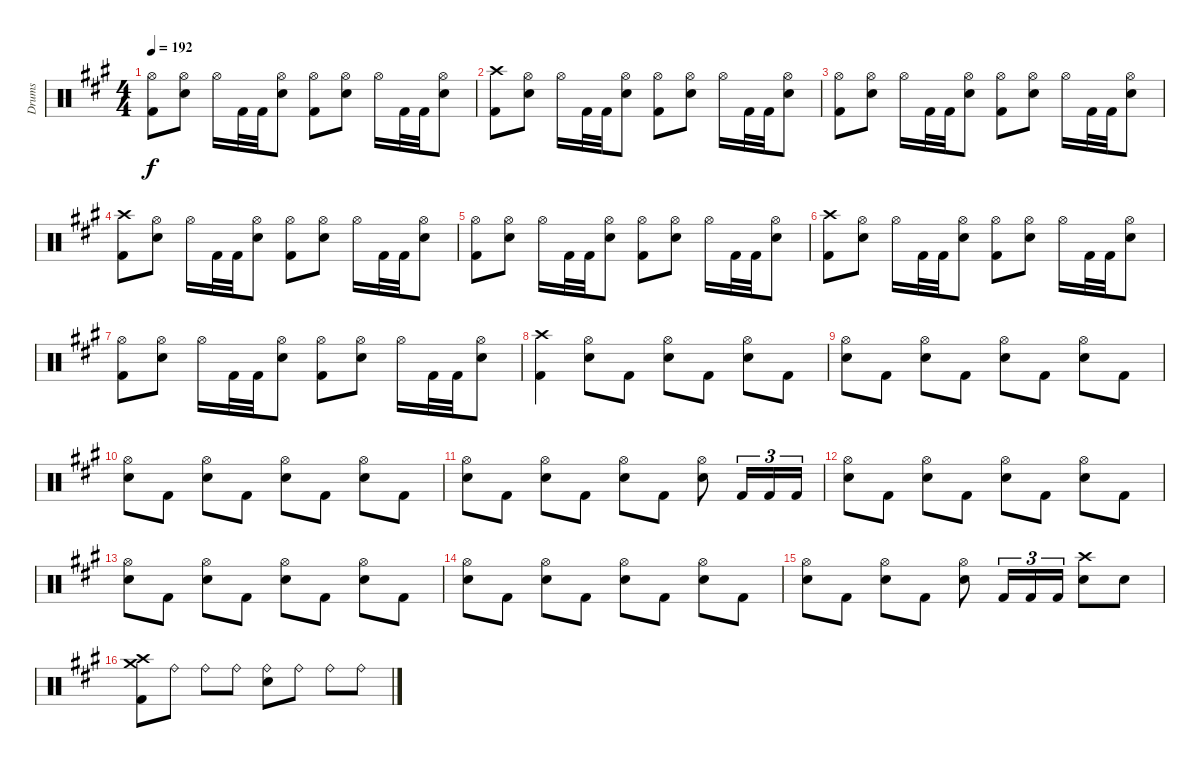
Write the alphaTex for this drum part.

\track ("Drums" "Drums") {instrument percussion}
\staff {score}
\articulation defaults
\ts (4 4)
\tempo 192
\clef neutral
\ks f#minor
("Hi-Hat (open)" "Kick (hit) 2").8{dy f} ("Hi-Hat (open)" "Snare (hit) 2").8 "Hi-Hat (open)".16 "Kick (hit) 2".32 "Kick (hit) 2".32 ("Hi-Hat (open)" "Snare (hit) 2").8 ("Hi-Hat (open)" "Kick (hit) 2").8 ("Hi-Hat (open)" "Snare (hit) 2").8 "Hi-Hat (open)".16 "Kick (hit) 2".32 "Kick (hit) 2".32 ("Hi-Hat (open)" "Snare (hit) 2").8 |
("Crash high (hit)" "Kick (hit) 2").8 ("Hi-Hat (open)" "Snare (hit) 2").8 "Hi-Hat (open)".16 "Kick (hit) 2".32 "Kick (hit) 2".32 ("Hi-Hat (open)" "Snare (hit) 2").8 ("Hi-Hat (open)" "Kick (hit) 2").8 ("Hi-Hat (open)" "Snare (hit) 2").8 "Hi-Hat (open)".16 "Kick (hit) 2".32 "Kick (hit) 2".32 ("Hi-Hat (open)" "Snare (hit) 2").8 |
("Hi-Hat (open)" "Kick (hit) 2").8 ("Hi-Hat (open)" "Snare (hit) 2").8 "Hi-Hat (open)".16 "Kick (hit) 2".32 "Kick (hit) 2".32 ("Hi-Hat (open)" "Snare (hit) 2").8 ("Hi-Hat (open)" "Kick (hit) 2").8 ("Hi-Hat (open)" "Snare (hit) 2").8 "Hi-Hat (open)".16 "Kick (hit) 2".32 "Kick (hit) 2".32 ("Hi-Hat (open)" "Snare (hit) 2").8 |
("Crash high (hit)" "Kick (hit) 2").8 ("Hi-Hat (open)" "Snare (hit) 2").8 "Hi-Hat (open)".16 "Kick (hit) 2".32 "Kick (hit) 2".32 ("Hi-Hat (open)" "Snare (hit) 2").8 ("Hi-Hat (open)" "Kick (hit) 2").8 ("Hi-Hat (open)" "Snare (hit) 2").8 "Hi-Hat (open)".16 "Kick (hit) 2".32 "Kick (hit) 2".32 ("Hi-Hat (open)" "Snare (hit) 2").8 |
("Hi-Hat (open)" "Kick (hit) 2").8 ("Hi-Hat (open)" "Snare (hit) 2").8 "Hi-Hat (open)".16 "Kick (hit) 2".32 "Kick (hit) 2".32 ("Hi-Hat (open)" "Snare (hit) 2").8 ("Hi-Hat (open)" "Kick (hit) 2").8 ("Hi-Hat (open)" "Snare (hit) 2").8 "Hi-Hat (open)".16 "Kick (hit) 2".32 "Kick (hit) 2".32 ("Hi-Hat (open)" "Snare (hit) 2").8 |
("Crash high (hit)" "Kick (hit) 2").8 ("Hi-Hat (open)" "Snare (hit) 2").8 "Hi-Hat (open)".16 "Kick (hit) 2".32 "Kick (hit) 2".32 ("Hi-Hat (open)" "Snare (hit) 2").8 ("Hi-Hat (open)" "Kick (hit) 2").8 ("Hi-Hat (open)" "Snare (hit) 2").8 "Hi-Hat (open)".16 "Kick (hit) 2".32 "Kick (hit) 2".32 ("Hi-Hat (open)" "Snare (hit) 2").8 |
("Hi-Hat (open)" "Kick (hit) 2").8 ("Hi-Hat (open)" "Snare (hit) 2").8 "Hi-Hat (open)".16 "Kick (hit) 2".32 "Kick (hit) 2".32 ("Hi-Hat (open)" "Snare (hit) 2").8 ("Hi-Hat (open)" "Kick (hit) 2").8 ("Hi-Hat (open)" "Snare (hit) 2").8 "Hi-Hat (open)".16 "Kick (hit) 2".32 "Kick (hit) 2".32 ("Hi-Hat (open)" "Snare (hit) 2").8 |
("Crash high (hit)" "Kick (hit) 2").4 ("Hi-Hat (open)" "Snare (hit) 2").8 "Kick (hit) 2".8 ("Hi-Hat (open)" "Snare (hit) 2").8 "Kick (hit) 2".8 ("Hi-Hat (open)" "Snare (hit) 2").8 "Kick (hit) 2".8 |
("Hi-Hat (open)" "Snare (hit) 2").8 "Kick (hit) 2".8 ("Hi-Hat (open)" "Snare (hit) 2").8 "Kick (hit) 2".8 ("Hi-Hat (open)" "Snare (hit) 2").8 "Kick (hit) 2".8 ("Hi-Hat (open)" "Snare (hit) 2").8 "Kick (hit) 2".8 |
("Hi-Hat (open)" "Snare (hit) 2").8 "Kick (hit) 2".8 ("Hi-Hat (open)" "Snare (hit) 2").8 "Kick (hit) 2".8 ("Hi-Hat (open)" "Snare (hit) 2").8 "Kick (hit) 2".8 ("Hi-Hat (open)" "Snare (hit) 2").8 "Kick (hit) 2".8 |
("Hi-Hat (open)" "Snare (hit) 2").8 "Kick (hit) 2".8 ("Hi-Hat (open)" "Snare (hit) 2").8 "Kick (hit) 2".8 ("Hi-Hat (open)" "Snare (hit) 2").8 "Kick (hit) 2".8 ("Hi-Hat (open)" "Snare (hit) 2").8 "Kick (hit) 2".16{tu (3 2)} "Kick (hit) 2".16{tu (3 2)} "Kick (hit) 2".16{tu (3 2)} |
("Hi-Hat (open)" "Snare (hit) 2").8 "Kick (hit) 2".8 ("Hi-Hat (open)" "Snare (hit) 2").8 "Kick (hit) 2".8 ("Hi-Hat (open)" "Snare (hit) 2").8 "Kick (hit) 2".8 ("Hi-Hat (open)" "Snare (hit) 2").8 "Kick (hit) 2".8 |
("Hi-Hat (open)" "Snare (hit) 2").8 "Kick (hit) 2".8 ("Hi-Hat (open)" "Snare (hit) 2").8 "Kick (hit) 2".8 ("Hi-Hat (open)" "Snare (hit) 2").8 "Kick (hit) 2".8 ("Hi-Hat (open)" "Snare (hit) 2").8 "Kick (hit) 2".8 |
("Hi-Hat (open)" "Snare (hit) 2").8 "Kick (hit) 2".8 ("Hi-Hat (open)" "Snare (hit) 2").8 "Kick (hit) 2".8 ("Hi-Hat (open)" "Snare (hit) 2").8 "Kick (hit) 2".8 ("Hi-Hat (open)" "Snare (hit) 2").8 "Kick (hit) 2".8 |
("Hi-Hat (open)" "Snare (hit) 2").8 "Kick (hit) 2".8 ("Hi-Hat (open)" "Snare (hit) 2").8 "Kick (hit) 2".8 ("Hi-Hat (open)" "Snare (hit) 2").8 "Kick (hit) 2".16{tu (3 2)} "Kick (hit) 2".16{tu (3 2)} "Kick (hit) 2".16{tu (3 2)} ("Crash high (hit)" "Snare (hit) 2").8 "Snare (hit) 2".8 |
("Crash high (hit)" "Crash medium (hit)" "Kick (hit) 2").8 "Ride (bell)".8 "Ride (bell)".8 "Ride (bell)".8 ("Ride (bell)" "Snare (hit) 2").8 "Ride (bell)".8 "Ride (bell)".8 "Ride (bell)".8
